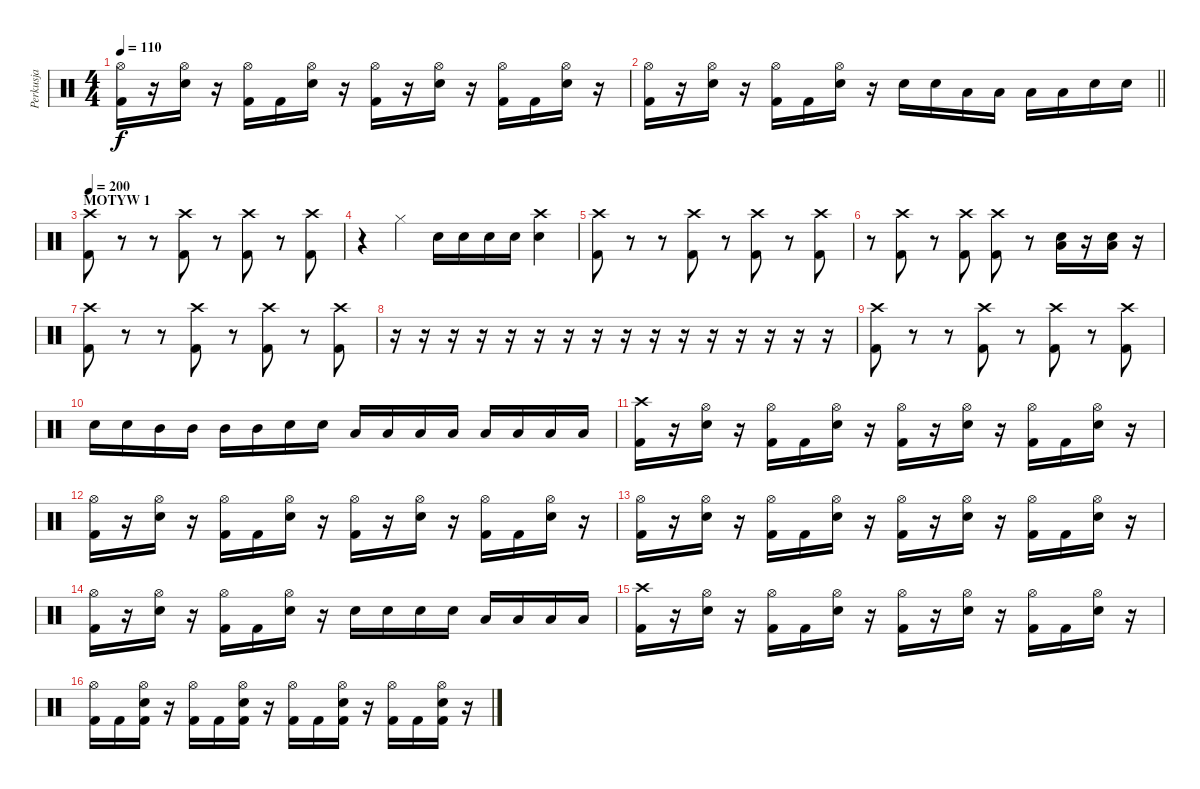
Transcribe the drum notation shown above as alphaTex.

\track ("Perkusja" "Perkusja") {instrument percussion}
\staff {score}
\articulation defaults
\ts (4 4)
\tempo 110
\clef neutral
\ks c
("Hi-Hat (open)" "Kick (hit) 2").16{dy f} r.16 ("Hi-Hat (open)" "Snare (hit) 2").16 r.16 ("Hi-Hat (open)" "Kick (hit) 2").16 "Kick (hit) 2".16 ("Hi-Hat (open)" "Snare (hit) 2").16 r.16 ("Hi-Hat (open)" "Kick (hit) 2").16 r.16 ("Hi-Hat (open)" "Snare (hit) 2").16 r.16 ("Hi-Hat (open)" "Kick (hit) 2").16 "Kick (hit) 2".16 ("Hi-Hat (open)" "Snare (hit) 2").16 r.16 |
\barLineRight lightlight
("Hi-Hat (open)" "Kick (hit) 2").16 r.16 ("Hi-Hat (open)" "Snare (hit) 2").16 r.16 ("Hi-Hat (open)" "Kick (hit) 2").16 "Kick (hit) 2".16 ("Hi-Hat (open)" "Snare (hit) 2").16 r.16 "Snare (hit) 2".16 "Snare (hit) 2".16 "Low Tom (hit)".16 "Low Tom (hit)".16 "Low Tom (hit)".16 "Low Tom (hit)".16 "Snare (hit) 2".16 "Snare (hit) 2".16 |
\section ("" "MOTYW 1")
\tempo 200
("Crash high (hit)" "Kick (hit) 2").8 r.8 r.8 ("Crash high (hit)" "Kick (hit) 2").8 r.8 ("Crash high (hit)" "Kick (hit) 2").8 r.8 ("Crash high (hit)" "Kick (hit) 2").8 |
r.4 "Hi-Hat (closed)".4 "Snare (hit) 2".16 "Snare (hit) 2".16 "Snare (hit) 2".16 "Snare (hit) 2".16 ("Crash high (hit)" "Snare (hit) 2").4 |
("Crash high (hit)" "Kick (hit) 2").8 r.8 r.8 ("Crash high (hit)" "Kick (hit) 2").8 r.8 ("Crash high (hit)" "Kick (hit) 2").8 r.8 ("Crash high (hit)" "Kick (hit) 2").8 |
r.8 ("Crash high (hit)" "Kick (hit) 2").8 r.8 ("Crash high (hit)" "Kick (hit) 2").8 ("Crash high (hit)" "Kick (hit) 2").8 r.8 ("Snare (hit) 2" "Low Floor Tom (hit)").16 r.16 ("Snare (hit) 2" "Low Floor Tom (hit)").16 r.16 |
("Crash high (hit)" "Kick (hit) 2").8 r.8 r.8 ("Crash high (hit)" "Kick (hit) 2").8 r.8 ("Crash high (hit)" "Kick (hit) 2").8 r.8 ("Crash high (hit)" "Kick (hit) 2").8 |
r.16 r.16 r.16 r.16 r.16 r.16 r.16 r.16 r.16 r.16 r.16 r.16 r.16 r.16 r.16 r.16 |
("Crash high (hit)" "Kick (hit) 2").8 r.8 r.8 ("Crash high (hit)" "Kick (hit) 2").8 r.8 ("Crash high (hit)" "Kick (hit) 2").8 r.8 ("Crash high (hit)" "Kick (hit) 2").8 |
"Snare (hit) 2".16 "Snare (hit) 2".16 "Mid Tom (hit)".16 "Mid Tom (hit)".16 "Mid Tom (hit)".16 "Mid Tom (hit)".16 "Snare (hit) 2".16 "Snare (hit) 2".16 "Low Tom (hit)".16 "Low Tom (hit)".16 "Low Tom (hit)".16 "Low Tom (hit)".16 "Low Floor Tom (hit)".16 "Low Floor Tom (hit)".16 "Low Floor Tom (hit)".16 "Low Floor Tom (hit)".16 |
("Crash high (hit)" "Kick (hit) 2").16 r.16 ("Hi-Hat (open)" "Snare (hit) 2").16 r.16 ("Hi-Hat (open)" "Kick (hit) 2").16 "Kick (hit) 2".16 ("Hi-Hat (open)" "Snare (hit) 2").16 r.16 ("Hi-Hat (open)" "Kick (hit) 2").16 r.16 ("Hi-Hat (open)" "Snare (hit) 2").16 r.16 ("Hi-Hat (open)" "Kick (hit) 2").16 "Kick (hit) 2".16 ("Hi-Hat (open)" "Snare (hit) 2").16 r.16 |
("Hi-Hat (open)" "Kick (hit) 2").16 r.16 ("Hi-Hat (open)" "Snare (hit) 2").16 r.16 ("Hi-Hat (open)" "Kick (hit) 2").16 "Kick (hit) 2".16 ("Hi-Hat (open)" "Snare (hit) 2").16 r.16 ("Hi-Hat (open)" "Kick (hit) 2").16 r.16 ("Hi-Hat (open)" "Snare (hit) 2").16 r.16 ("Hi-Hat (open)" "Kick (hit) 2").16 "Kick (hit) 2".16 ("Hi-Hat (open)" "Snare (hit) 2").16 r.16 |
("Hi-Hat (open)" "Kick (hit) 2").16 r.16 ("Hi-Hat (open)" "Snare (hit) 2").16 r.16 ("Hi-Hat (open)" "Kick (hit) 2").16 "Kick (hit) 2".16 ("Hi-Hat (open)" "Snare (hit) 2").16 r.16 ("Hi-Hat (open)" "Kick (hit) 2").16 r.16 ("Hi-Hat (open)" "Snare (hit) 2").16 r.16 ("Hi-Hat (open)" "Kick (hit) 2").16 "Kick (hit) 2".16 ("Hi-Hat (open)" "Snare (hit) 2").16 r.16 |
("Hi-Hat (open)" "Kick (hit) 2").16 r.16 ("Hi-Hat (open)" "Snare (hit) 2").16 r.16 ("Hi-Hat (open)" "Kick (hit) 2").16 "Kick (hit) 2".16 ("Hi-Hat (open)" "Snare (hit) 2").16 r.16 "Snare (hit) 2".16 "Snare (hit) 2".16 "Snare (hit) 2".16 "Snare (hit) 2".16 "Low Tom (hit)".16 "Low Tom (hit)".16 "Low Floor Tom (hit)".16 "Low Floor Tom (hit)".16 |
("Crash high (hit)" "Kick (hit) 2").16 r.16 ("Hi-Hat (open)" "Snare (hit) 2").16 r.16 ("Hi-Hat (open)" "Kick (hit) 2").16 "Kick (hit) 2".16 ("Hi-Hat (open)" "Snare (hit) 2").16 r.16 ("Hi-Hat (open)" "Kick (hit) 2").16 r.16 ("Hi-Hat (open)" "Snare (hit) 2").16 r.16 ("Hi-Hat (open)" "Kick (hit) 2").16 "Kick (hit) 2".16 ("Hi-Hat (open)" "Snare (hit) 2").16 r.16 |
("Hi-Hat (open)" "Kick (hit) 2").16 "Kick (hit) 2".16 ("Hi-Hat (open)" "Snare (hit) 2" "Kick (hit) 2").16 r.16 ("Hi-Hat (open)" "Kick (hit) 2").16 "Kick (hit) 2".16 ("Hi-Hat (open)" "Snare (hit) 2" "Kick (hit) 2").16 r.16 ("Hi-Hat (open)" "Kick (hit) 2").16 "Kick (hit) 2".16 ("Hi-Hat (open)" "Snare (hit) 2" "Kick (hit) 2").16 r.16 ("Hi-Hat (open)" "Kick (hit) 2").16 "Kick (hit) 2".16 ("Hi-Hat (open)" "Snare (hit) 2" "Kick (hit) 2").16 r.16
